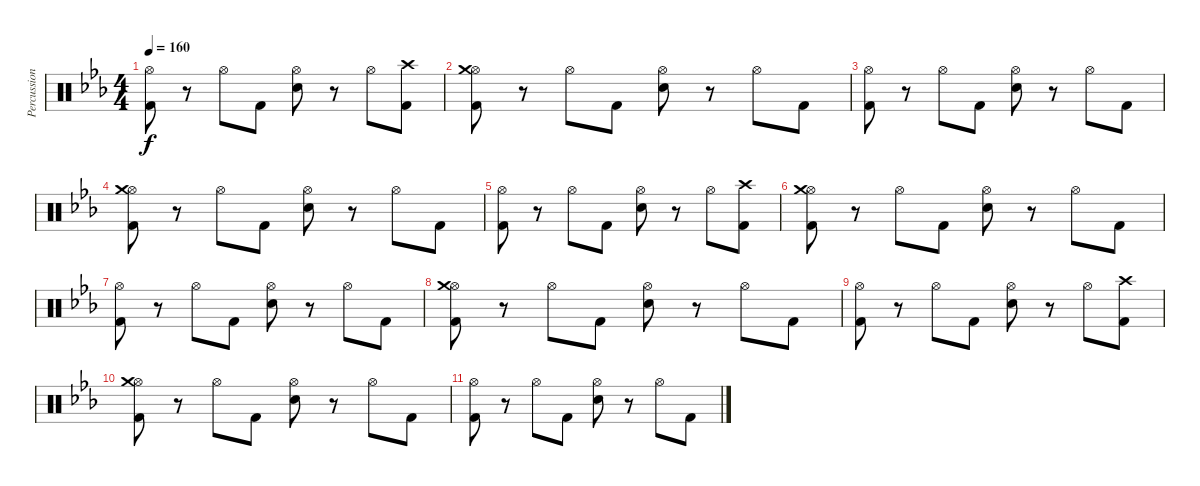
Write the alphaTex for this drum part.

\track ("Percussion" "Percussion") {instrument percussion}
\staff {score}
\articulation defaults
\ts (4 4)
\tempo 160
\clef neutral
\ks cminor
("Hi-Hat (open)" "Kick (hit) 2").8{dy f} r.8 "Hi-Hat (open)".8 "Kick (hit) 2".8 ("Hi-Hat (open)" "Snare (hit) 2").8 r.8 "Hi-Hat (open)".8 ("Kick (hit) 2" "Crash high (hit)").8 |
("Hi-Hat (open)" "Kick (hit) 2" "Crash medium (hit)").8 r.8 "Hi-Hat (open)".8 "Kick (hit) 2".8 ("Hi-Hat (open)" "Snare (hit) 2").8 r.8 "Hi-Hat (open)".8 "Kick (hit) 2".8 |
("Hi-Hat (open)" "Kick (hit) 2").8 r.8 "Hi-Hat (open)".8 "Kick (hit) 2".8 ("Hi-Hat (open)" "Snare (hit) 2").8 r.8 "Hi-Hat (open)".8 "Kick (hit) 2".8 |
("Hi-Hat (open)" "Kick (hit) 2" "Crash medium (hit)").8 r.8 "Hi-Hat (open)".8 "Kick (hit) 2".8 ("Hi-Hat (open)" "Snare (hit) 2").8 r.8 "Hi-Hat (open)".8 "Kick (hit) 2".8 |
("Hi-Hat (open)" "Kick (hit) 2").8 r.8 "Hi-Hat (open)".8 "Kick (hit) 2".8 ("Hi-Hat (open)" "Snare (hit) 2").8 r.8 "Hi-Hat (open)".8 ("Kick (hit) 2" "Crash high (hit)").8 |
("Hi-Hat (open)" "Kick (hit) 2" "Crash medium (hit)").8 r.8 "Hi-Hat (open)".8 "Kick (hit) 2".8 ("Hi-Hat (open)" "Snare (hit) 2").8 r.8 "Hi-Hat (open)".8 "Kick (hit) 2".8 |
("Hi-Hat (open)" "Kick (hit) 2").8 r.8 "Hi-Hat (open)".8 "Kick (hit) 2".8 ("Hi-Hat (open)" "Snare (hit) 2").8 r.8 "Hi-Hat (open)".8 "Kick (hit) 2".8 |
("Hi-Hat (open)" "Kick (hit) 2" "Crash medium (hit)").8 r.8 "Hi-Hat (open)".8 "Kick (hit) 2".8 ("Hi-Hat (open)" "Snare (hit) 2").8 r.8 "Hi-Hat (open)".8 "Kick (hit) 2".8 |
("Hi-Hat (open)" "Kick (hit) 2").8 r.8 "Hi-Hat (open)".8 "Kick (hit) 2".8 ("Hi-Hat (open)" "Snare (hit) 2").8 r.8 "Hi-Hat (open)".8 ("Kick (hit) 2" "Crash high (hit)").8 |
("Hi-Hat (open)" "Kick (hit) 2" "Crash medium (hit)").8 r.8 "Hi-Hat (open)".8 "Kick (hit) 2".8 ("Hi-Hat (open)" "Snare (hit) 2").8 r.8 "Hi-Hat (open)".8 "Kick (hit) 2".8 |
("Hi-Hat (open)" "Kick (hit) 2").8 r.8 "Hi-Hat (open)".8 "Kick (hit) 2".8 ("Hi-Hat (open)" "Snare (hit) 2").8 r.8 "Hi-Hat (open)".8 "Kick (hit) 2".8
